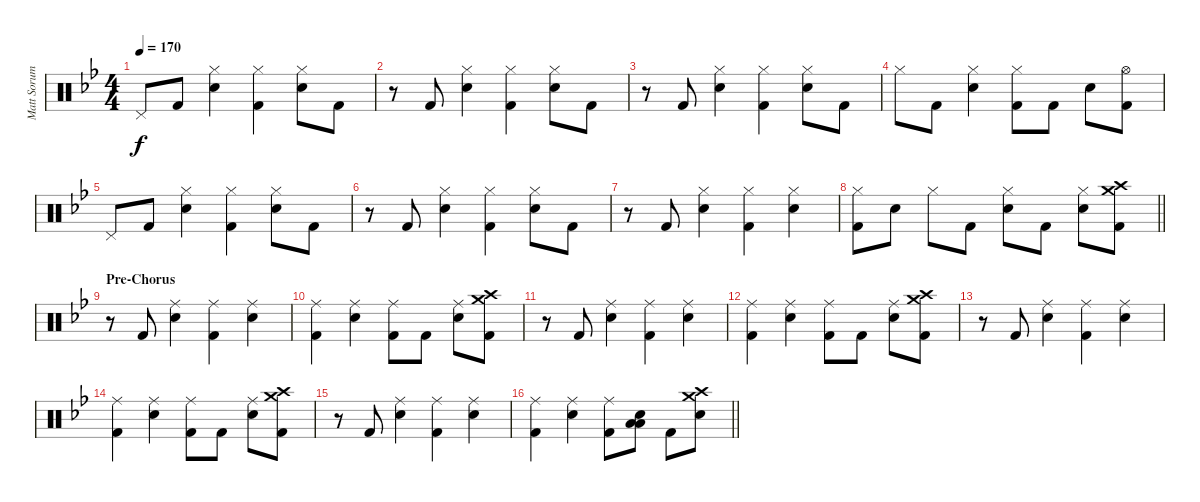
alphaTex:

\track ("Matt Sorum - Drums" "Matt Sorum") {instrument percussion}
\staff {score}
\articulation defaults
\ts (4 4)
\tempo 170
\clef neutral
\ks bb "Pedal Hi-Hat (hit)".8{dy f} "Kick (hit) 2".8
("Hi-Hat (closed)" "Snare (hit) 2").4 ("Hi-Hat (closed)" "Kick (hit) 2").4 ("Hi-Hat (closed)" "Snare (hit) 2").8 "Kick (hit) 2".8 |
r.8 "Kick (hit) 2".8 ("Hi-Hat (closed)" "Snare (hit) 2").4 ("Hi-Hat (closed)" "Kick (hit) 2").4 ("Hi-Hat (closed)" "Snare (hit) 2").8 "Kick (hit) 2".8 |
r.8 "Kick (hit) 2".8 ("Hi-Hat (closed)" "Snare (hit) 2").4 ("Hi-Hat (closed)" "Kick (hit) 2").4 ("Hi-Hat (closed)" "Snare (hit) 2").8 "Kick (hit) 2".8 |
"Hi-Hat (closed)".8 "Kick (hit) 2".8 ("Hi-Hat (closed)" "Snare (hit) 2").4 ("Hi-Hat (closed)" "Kick (hit) 2").8 "Kick (hit) 2".8 "Snare (hit) 2".8 ("Hi-Hat (open)" "Kick (hit) 2").8 |
"Pedal Hi-Hat (hit)".8 "Kick (hit) 2".8 ("Hi-Hat (closed)" "Snare (hit) 2").4 ("Hi-Hat (closed)" "Kick (hit) 2").4 ("Hi-Hat (closed)" "Snare (hit) 2").8 "Kick (hit) 2".8 |
r.8 "Kick (hit) 2".8 ("Hi-Hat (closed)" "Snare (hit) 2").4 ("Hi-Hat (closed)" "Kick (hit) 2").4 ("Hi-Hat (closed)" "Snare (hit) 2").8 "Kick (hit) 2".8 |
r.8 "Kick (hit) 2".8 ("Hi-Hat (closed)" "Snare (hit) 2").4 ("Hi-Hat (closed)" "Kick (hit) 2").4 ("Hi-Hat (closed)" "Snare (hit) 2").4 |
\barLineRight lightlight
("Hi-Hat (closed)" "Kick (hit) 2").8 "Snare (hit) 2".8 "Hi-Hat (closed)".8 "Kick (hit) 2".8 ("Hi-Hat (closed)" "Snare (hit) 2").8 "Kick (hit) 2".8 ("Hi-Hat (closed)" "Snare (hit) 2").8 ("Crash medium (hit)" "Crash high (hit)" "Kick (hit) 2").8 |
\section ("" "Pre-Chorus")
r.8 "Kick (hit) 2".8 ("Ride (middle)" "Snare (hit) 2").4 ("Ride (middle)" "Kick (hit) 2").4 ("Ride (middle)" "Snare (hit) 2").4 |
("Ride (middle)" "Kick (hit) 2").4 ("Ride (middle)" "Snare (hit) 2").4 ("Ride (middle)" "Kick (hit) 2").8 "Kick (hit) 2".8 ("Ride (middle)" "Snare (hit) 2").8 ("Crash medium (hit)" "Crash high (hit)" "Kick (hit) 2").8 |
r.8 "Kick (hit) 2".8 ("Ride (middle)" "Snare (hit) 2").4 ("Ride (middle)" "Kick (hit) 2").4 ("Ride (middle)" "Snare (hit) 2").4 |
("Ride (middle)" "Kick (hit) 2").4 ("Ride (middle)" "Snare (hit) 2").4 ("Ride (middle)" "Kick (hit) 2").8 "Kick (hit) 2".8 ("Ride (middle)" "Snare (hit) 2").8 ("Crash medium (hit)" "Crash high (hit)" "Kick (hit) 2").8 |
r.8 "Kick (hit) 2".8 ("Ride (middle)" "Snare (hit) 2").4 ("Ride (middle)" "Kick (hit) 2").4 ("Ride (middle)" "Snare (hit) 2").4 |
("Ride (middle)" "Kick (hit) 2").4 ("Ride (middle)" "Snare (hit) 2").4 ("Ride (middle)" "Kick (hit) 2").8 "Kick (hit) 2".8 ("Ride (middle)" "Snare (hit) 2").8 ("Crash medium (hit)" "Crash high (hit)" "Kick (hit) 2").8 |
r.8 "Kick (hit) 2".8 ("Ride (middle)" "Snare (hit) 2").4 ("Ride (middle)" "Kick (hit) 2").4 ("Ride (middle)" "Snare (hit) 2").4 |
\barLineRight lightlight
("Ride (middle)" "Kick (hit) 2").4 ("Ride (middle)" "Snare (hit) 2").4 ("Ride (middle)" "Kick (hit) 2").8 ("Low Tom (hit)" "Low Tom (hit)" "Snare (hit) 2").8 "Kick (hit) 2".8 ("Crash medium (hit)" "Crash high (hit)" "Snare (hit) 2").8
